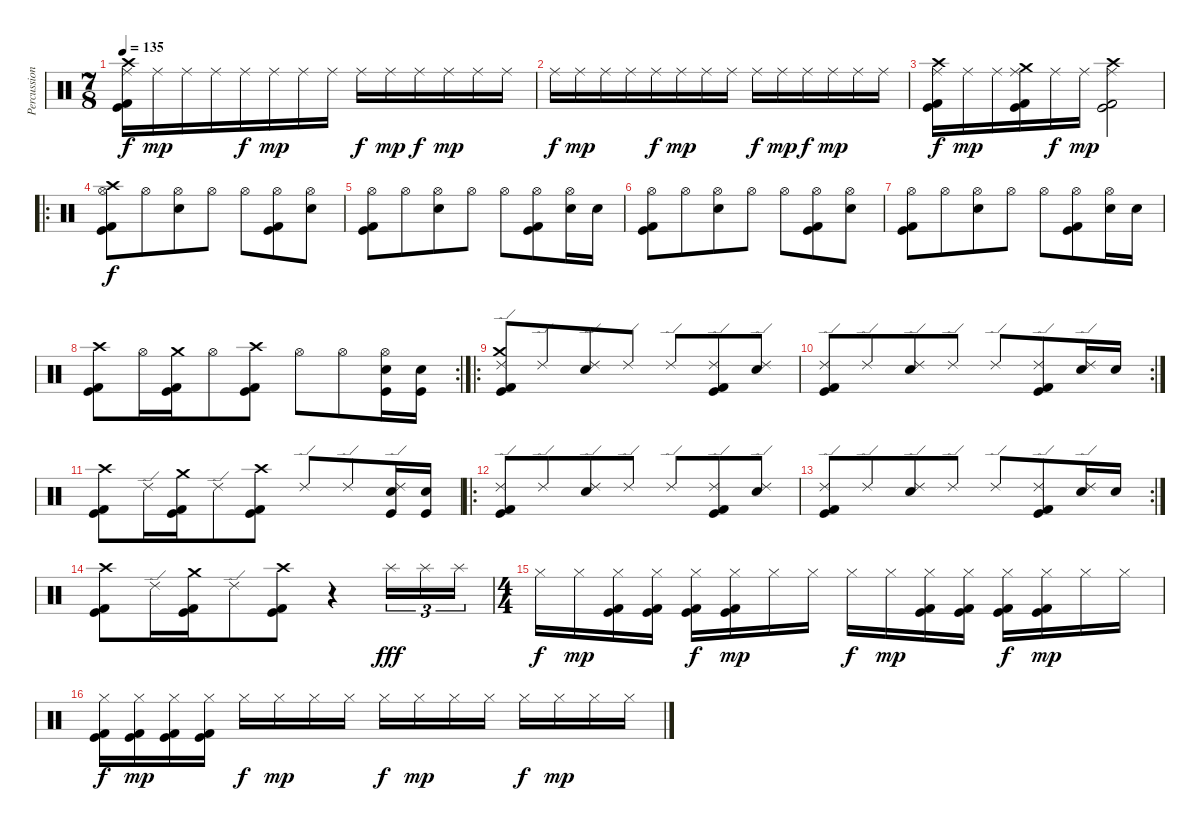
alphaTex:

\track ("Percussion" "Percussion") {instrument percussion}
\staff {score}
\articulation defaults
\ts (7 8)
\tempo 135
\clef neutral
\ks c
("Ride (middle)" "Crash high (hit)" "Kick (hit) 2" "Kick (hit)").16{dy f} "Ride (middle)".16{dy mp} "Ride (middle)".16 "Ride (middle)".16 "Ride (middle)".16{dy f} "Ride (middle)".16{dy mp} "Ride (middle)".16 "Ride (middle)".16 "Ride (middle)".16{dy f} "Ride (middle)".16{dy mp} "Ride (middle)".16{dy f} "Ride (middle)".16{dy mp} "Ride (middle)".16 "Ride (middle)".16 |
"Ride (middle)".16{dy f} "Ride (middle)".16{dy mp} "Ride (middle)".16 "Ride (middle)".16 "Ride (middle)".16{dy f} "Ride (middle)".16{dy mp} "Ride (middle)".16 "Ride (middle)".16 "Ride (middle)".16{dy f} "Ride (middle)".16{dy mp} "Ride (middle)".16{dy f} "Ride (middle)".16{dy mp} "Ride (middle)".16 "Ride (middle)".16 |
("Ride (middle)" "Crash high (hit)" "Kick (hit) 2" "Kick (hit)").16{dy f} "Ride (middle)".16{dy mp} "Ride (middle)".16 ("Ride (middle)" "Crash medium (hit)" "Kick (hit) 2" "Kick (hit)").16 "Ride (middle)".16{dy f} "Ride (middle)".16{dy mp} ("Ride (middle)" "Crash high (hit)" "Kick (hit) 2" "Kick (hit)").2 |
\ro
("Hi-Hat (open)" "Crash high (hit)" "Kick (hit) 2" "Kick (hit)").8{dy f} "Hi-Hat (open)".8 ("Hi-Hat (open)" "Snare (hit) 2").8 "Hi-Hat (open)".8 "Hi-Hat (open)".8 ("Hi-Hat (open)" "Kick (hit) 2" "Kick (hit)").8 ("Hi-Hat (open)" "Snare (hit) 2").8 |
("Hi-Hat (open)" "Kick (hit) 2" "Kick (hit)").8 "Hi-Hat (open)".8 ("Hi-Hat (open)" "Snare (hit) 2").8 "Hi-Hat (open)".8 "Hi-Hat (open)".8 ("Hi-Hat (open)" "Kick (hit) 2" "Kick (hit)").8 ("Hi-Hat (open)" "Snare (hit) 2").16 "Snare (hit) 2".16 |
("Hi-Hat (open)" "Kick (hit) 2" "Kick (hit)").8 "Hi-Hat (open)".8 ("Hi-Hat (open)" "Snare (hit) 2").8 "Hi-Hat (open)".8 "Hi-Hat (open)".8 ("Hi-Hat (open)" "Kick (hit) 2" "Kick (hit)").8 ("Hi-Hat (open)" "Snare (hit) 2").8 |
("Hi-Hat (open)" "Kick (hit) 2" "Kick (hit)").8 "Hi-Hat (open)".8 ("Hi-Hat (open)" "Snare (hit) 2").8 "Hi-Hat (open)".8 "Hi-Hat (open)".8 ("Hi-Hat (open)" "Kick (hit) 2" "Kick (hit)").8 ("Hi-Hat (open)" "Snare (hit) 2").16 "Snare (hit) 2".16 |
\rc 2
("Crash high (hit)" "Kick (hit) 2" "Kick (hit)").8 "Hi-Hat (open)".16 ("Crash medium (hit)" "Kick (hit) 2" "Kick (hit)").16 "Hi-Hat (open)".8 ("Crash high (hit)" "Kick (hit) 2" "Kick (hit)").8 "Hi-Hat (open)".8 "Hi-Hat (open)".8 ("Hi-Hat (open)" "Snare (hit) 2" "Kick (hit)").16 ("Snare (hit) 2" "Kick (hit)").16 |
\ro
("Ride (edge) 2" "Crash medium (hit)" "Kick (hit) 2" "Kick (hit)").8 "Ride (edge) 2".8 ("Ride (edge) 2" "Snare (hit) 2").8 "Ride (edge) 2".8 "Ride (edge) 2".8 ("Ride (edge) 2" "Kick (hit) 2" "Kick (hit)").8 ("Ride (edge) 2" "Snare (hit) 2").8 |
\rc 2
("Ride (edge) 2" "Kick (hit) 2" "Kick (hit)").8 "Ride (edge) 2".8 ("Ride (edge) 2" "Snare (hit) 2").8 "Ride (edge) 2".8 "Ride (edge) 2".8 ("Ride (edge) 2" "Kick (hit) 2" "Kick (hit)").8 ("Ride (edge) 2" "Snare (hit) 2").16 "Snare (hit) 2".16 |
("Crash high (hit)" "Kick (hit) 2" "Kick (hit)").8 "Ride (edge) 2".16 ("Crash medium (hit)" "Kick (hit) 2" "Kick (hit)").16 "Ride (edge) 2".8 ("Crash high (hit)" "Kick (hit) 2" "Kick (hit)").8 "Ride (edge) 2".8 "Ride (edge) 2".8 ("Ride (edge) 2" "Snare (hit) 2" "Kick (hit)").16 ("Snare (hit) 2" "Kick (hit)").16 |
\ro
("Ride (edge) 2" "Kick (hit) 2" "Kick (hit)").8 "Ride (edge) 2".8 ("Ride (edge) 2" "Snare (hit) 2").8 "Ride (edge) 2".8 "Ride (edge) 2".8 ("Ride (edge) 2" "Kick (hit) 2" "Kick (hit)").8 ("Ride (edge) 2" "Snare (hit) 2").8 |
\rc 2
("Ride (edge) 2" "Kick (hit) 2" "Kick (hit)").8 "Ride (edge) 2".8 ("Ride (edge) 2" "Snare (hit) 2").8 "Ride (edge) 2".8 "Ride (edge) 2".8 ("Ride (edge) 2" "Kick (hit) 2" "Kick (hit)").8 ("Ride (edge) 2" "Snare (hit) 2").16 "Snare (hit) 2".16 |
("Crash high (hit)" "Kick (hit) 2" "Kick (hit)").8 "Ride (edge) 2".16 ("Crash medium (hit)" "Kick (hit) 2" "Kick (hit)").16 "Ride (edge) 2".8 ("Crash high (hit)" "Kick (hit) 2" "Kick (hit)").8 r.4 "Splash (hit)".16{tu (3 2) dy fff} "Splash (hit)".16{tu (3 2)} "Splash (hit)".16{tu (3 2)} |
\ts (4 4)
"Hi-Hat (closed)".16{dy f} "Hi-Hat (closed)".16{dy mp} ("Hi-Hat (closed)" "Kick (hit) 2" "Kick (hit)").16 ("Hi-Hat (closed)" "Kick (hit) 2" "Kick (hit)").16 ("Hi-Hat (closed)" "Kick (hit) 2" "Kick (hit)").16{dy f} ("Hi-Hat (closed)" "Kick (hit) 2" "Kick (hit)").16{dy mp} "Hi-Hat (closed)".16 "Hi-Hat (closed)".16 "Hi-Hat (closed)".16{dy f} "Hi-Hat (closed)".16{dy mp} ("Hi-Hat (closed)" "Kick (hit) 2" "Kick (hit)").16 ("Hi-Hat (closed)" "Kick (hit) 2" "Kick (hit)").16 ("Hi-Hat (closed)" "Kick (hit) 2" "Kick (hit)").16{dy f} ("Hi-Hat (closed)" "Kick (hit) 2" "Kick (hit)").16{dy mp} "Hi-Hat (closed)".16 "Hi-Hat (closed)".16 |
("Hi-Hat (closed)" "Kick (hit) 2" "Kick (hit)").16{dy f} ("Hi-Hat (closed)" "Kick (hit) 2" "Kick (hit)").16{dy mp} ("Hi-Hat (closed)" "Kick (hit) 2" "Kick (hit)").16 ("Hi-Hat (closed)" "Kick (hit) 2" "Kick (hit)").16 "Hi-Hat (closed)".16{dy f} "Hi-Hat (closed)".16{dy mp} "Hi-Hat (closed)".16 "Hi-Hat (closed)".16 "Hi-Hat (closed)".16{dy f} "Hi-Hat (closed)".16{dy mp} "Hi-Hat (closed)".16 "Hi-Hat (closed)".16 "Hi-Hat (closed)".16{dy f} "Hi-Hat (closed)".16{dy mp} "Hi-Hat (closed)".16 "Hi-Hat (closed)".16
